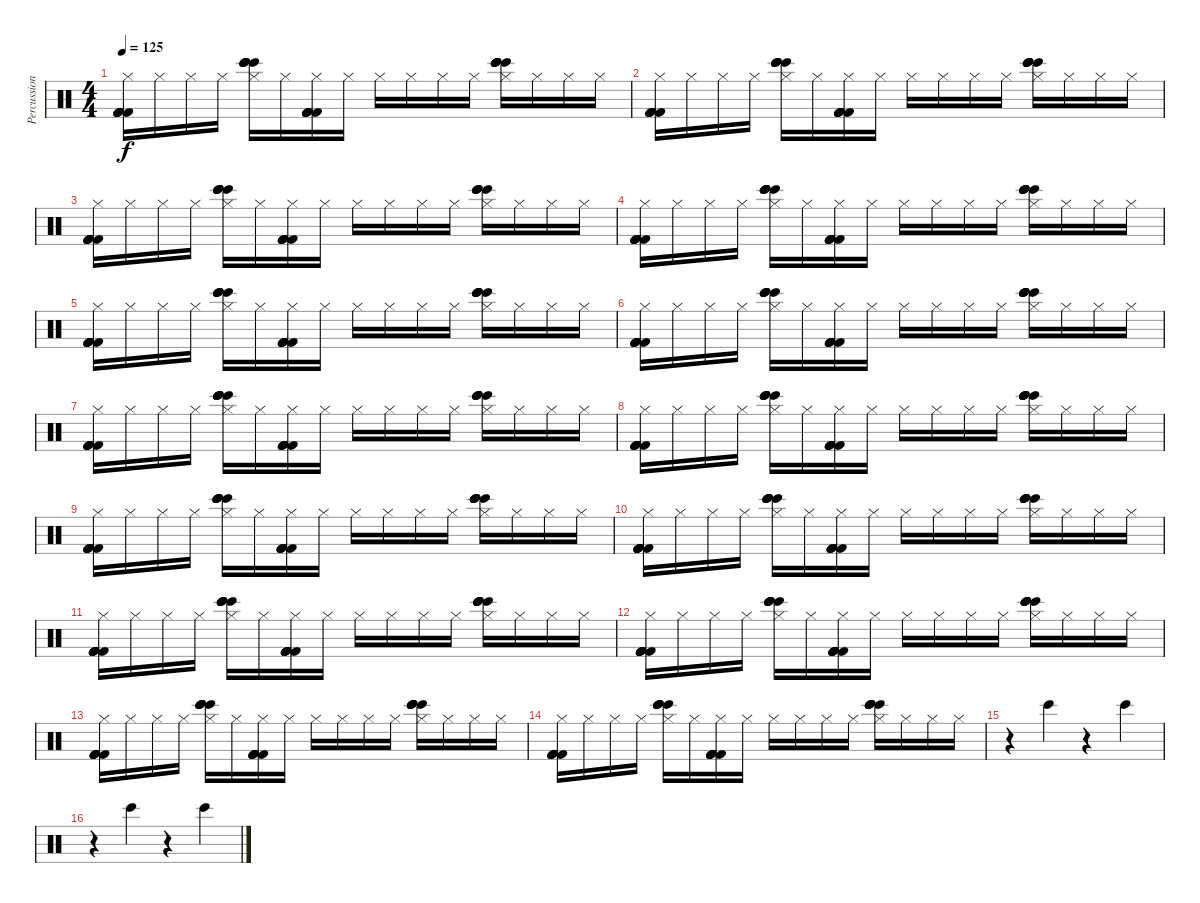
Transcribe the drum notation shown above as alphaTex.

\track ("Percussion" "Percussion") {instrument percussion}
\staff {score}
\articulation defaults
\ts (4 4)
\tempo 125
\clef neutral
\ks c
("Hi-Hat (closed)" "Kick (hit) 2" "Kick (hit) 2" "Kick (hit) 2" "Kick (hit) 2" "Kick (hit) 2").16{dy f} "Hi-Hat (closed)".16 "Hi-Hat (closed)".16 "Hi-Hat (closed)".16 ("Hi-Hat (closed)" "Bongo High (hit)" "Bongo High (hit)" "Bongo High (hit)" "Bongo High (hit)" "Bongo High (hit)").16 "Hi-Hat (closed)".16 ("Hi-Hat (closed)" "Kick (hit) 2" "Kick (hit) 2" "Kick (hit) 2" "Kick (hit) 2" "Kick (hit) 2").16 "Hi-Hat (closed)".16 "Hi-Hat (closed)".16 "Hi-Hat (closed)".16 "Hi-Hat (closed)".16 "Hi-Hat (closed)".16 ("Hi-Hat (closed)" "Bongo High (hit)" "Bongo High (hit)" "Bongo High (hit)" "Bongo High (hit)" "Bongo High (hit)").16 "Hi-Hat (closed)".16 "Hi-Hat (closed)".16 "Hi-Hat (closed)".16 |
("Hi-Hat (closed)" "Kick (hit) 2" "Kick (hit) 2" "Kick (hit) 2" "Kick (hit) 2" "Kick (hit) 2").16 "Hi-Hat (closed)".16 "Hi-Hat (closed)".16 "Hi-Hat (closed)".16 ("Hi-Hat (closed)" "Bongo High (hit)" "Bongo High (hit)" "Bongo High (hit)" "Bongo High (hit)" "Bongo High (hit)").16 "Hi-Hat (closed)".16 ("Hi-Hat (closed)" "Kick (hit) 2" "Kick (hit) 2" "Kick (hit) 2" "Kick (hit) 2" "Kick (hit) 2").16 "Hi-Hat (closed)".16 "Hi-Hat (closed)".16 "Hi-Hat (closed)".16 "Hi-Hat (closed)".16 "Hi-Hat (closed)".16 ("Hi-Hat (closed)" "Bongo High (hit)" "Bongo High (hit)" "Bongo High (hit)" "Bongo High (hit)" "Bongo High (hit)").16 "Hi-Hat (closed)".16 "Hi-Hat (closed)".16 "Hi-Hat (closed)".16 |
("Hi-Hat (closed)" "Kick (hit) 2" "Kick (hit) 2" "Kick (hit) 2" "Kick (hit) 2" "Kick (hit) 2").16 "Hi-Hat (closed)".16 "Hi-Hat (closed)".16 "Hi-Hat (closed)".16 ("Hi-Hat (closed)" "Bongo High (hit)" "Bongo High (hit)" "Bongo High (hit)" "Bongo High (hit)" "Bongo High (hit)").16 "Hi-Hat (closed)".16 ("Hi-Hat (closed)" "Kick (hit) 2" "Kick (hit) 2" "Kick (hit) 2" "Kick (hit) 2" "Kick (hit) 2").16 "Hi-Hat (closed)".16 "Hi-Hat (closed)".16 "Hi-Hat (closed)".16 "Hi-Hat (closed)".16 "Hi-Hat (closed)".16 ("Hi-Hat (closed)" "Bongo High (hit)" "Bongo High (hit)" "Bongo High (hit)" "Bongo High (hit)" "Bongo High (hit)").16 "Hi-Hat (closed)".16 "Hi-Hat (closed)".16 "Hi-Hat (closed)".16 |
("Hi-Hat (closed)" "Kick (hit) 2" "Kick (hit) 2" "Kick (hit) 2" "Kick (hit) 2" "Kick (hit) 2").16 "Hi-Hat (closed)".16 "Hi-Hat (closed)".16 "Hi-Hat (closed)".16 ("Hi-Hat (closed)" "Bongo High (hit)" "Bongo High (hit)" "Bongo High (hit)" "Bongo High (hit)" "Bongo High (hit)").16 "Hi-Hat (closed)".16 ("Hi-Hat (closed)" "Kick (hit) 2" "Kick (hit) 2" "Kick (hit) 2" "Kick (hit) 2" "Kick (hit) 2").16 "Hi-Hat (closed)".16 "Hi-Hat (closed)".16 "Hi-Hat (closed)".16 "Hi-Hat (closed)".16 "Hi-Hat (closed)".16 ("Hi-Hat (closed)" "Bongo High (hit)" "Bongo High (hit)" "Bongo High (hit)" "Bongo High (hit)" "Bongo High (hit)").16 "Hi-Hat (closed)".16 "Hi-Hat (closed)".16 "Hi-Hat (closed)".16 |
("Hi-Hat (closed)" "Kick (hit) 2" "Kick (hit) 2" "Kick (hit) 2" "Kick (hit) 2" "Kick (hit) 2").16 "Hi-Hat (closed)".16 "Hi-Hat (closed)".16 "Hi-Hat (closed)".16 ("Hi-Hat (closed)" "Bongo High (hit)" "Bongo High (hit)" "Bongo High (hit)" "Bongo High (hit)" "Bongo High (hit)").16 "Hi-Hat (closed)".16 ("Hi-Hat (closed)" "Kick (hit) 2" "Kick (hit) 2" "Kick (hit) 2" "Kick (hit) 2" "Kick (hit) 2").16 "Hi-Hat (closed)".16 "Hi-Hat (closed)".16 "Hi-Hat (closed)".16 "Hi-Hat (closed)".16 "Hi-Hat (closed)".16 ("Hi-Hat (closed)" "Bongo High (hit)" "Bongo High (hit)" "Bongo High (hit)" "Bongo High (hit)" "Bongo High (hit)").16 "Hi-Hat (closed)".16 "Hi-Hat (closed)".16 "Hi-Hat (closed)".16 |
("Hi-Hat (closed)" "Kick (hit) 2" "Kick (hit) 2" "Kick (hit) 2" "Kick (hit) 2" "Kick (hit) 2").16 "Hi-Hat (closed)".16 "Hi-Hat (closed)".16 "Hi-Hat (closed)".16 ("Hi-Hat (closed)" "Bongo High (hit)" "Bongo High (hit)" "Bongo High (hit)" "Bongo High (hit)" "Bongo High (hit)").16 "Hi-Hat (closed)".16 ("Hi-Hat (closed)" "Kick (hit) 2" "Kick (hit) 2" "Kick (hit) 2" "Kick (hit) 2" "Kick (hit) 2").16 "Hi-Hat (closed)".16 "Hi-Hat (closed)".16 "Hi-Hat (closed)".16 "Hi-Hat (closed)".16 "Hi-Hat (closed)".16 ("Hi-Hat (closed)" "Bongo High (hit)" "Bongo High (hit)" "Bongo High (hit)" "Bongo High (hit)" "Bongo High (hit)").16 "Hi-Hat (closed)".16 "Hi-Hat (closed)".16 "Hi-Hat (closed)".16 |
("Hi-Hat (closed)" "Kick (hit) 2" "Kick (hit) 2" "Kick (hit) 2" "Kick (hit) 2" "Kick (hit) 2").16 "Hi-Hat (closed)".16 "Hi-Hat (closed)".16 "Hi-Hat (closed)".16 ("Hi-Hat (closed)" "Bongo High (hit)" "Bongo High (hit)" "Bongo High (hit)" "Bongo High (hit)" "Bongo High (hit)").16 "Hi-Hat (closed)".16 ("Hi-Hat (closed)" "Kick (hit) 2" "Kick (hit) 2" "Kick (hit) 2" "Kick (hit) 2" "Kick (hit) 2").16 "Hi-Hat (closed)".16 "Hi-Hat (closed)".16 "Hi-Hat (closed)".16 "Hi-Hat (closed)".16 "Hi-Hat (closed)".16 ("Hi-Hat (closed)" "Bongo High (hit)" "Bongo High (hit)" "Bongo High (hit)" "Bongo High (hit)" "Bongo High (hit)").16 "Hi-Hat (closed)".16 "Hi-Hat (closed)".16 "Hi-Hat (closed)".16 |
("Hi-Hat (closed)" "Kick (hit) 2" "Kick (hit) 2" "Kick (hit) 2" "Kick (hit) 2" "Kick (hit) 2").16 "Hi-Hat (closed)".16 "Hi-Hat (closed)".16 "Hi-Hat (closed)".16 ("Hi-Hat (closed)" "Bongo High (hit)" "Bongo High (hit)" "Bongo High (hit)" "Bongo High (hit)" "Bongo High (hit)").16 "Hi-Hat (closed)".16 ("Hi-Hat (closed)" "Kick (hit) 2" "Kick (hit) 2" "Kick (hit) 2" "Kick (hit) 2" "Kick (hit) 2").16 "Hi-Hat (closed)".16 "Hi-Hat (closed)".16 "Hi-Hat (closed)".16 "Hi-Hat (closed)".16 "Hi-Hat (closed)".16 ("Hi-Hat (closed)" "Bongo High (hit)" "Bongo High (hit)" "Bongo High (hit)" "Bongo High (hit)" "Bongo High (hit)").16 "Hi-Hat (closed)".16 "Hi-Hat (closed)".16 "Hi-Hat (closed)".16 |
("Hi-Hat (closed)" "Kick (hit) 2" "Kick (hit) 2" "Kick (hit) 2" "Kick (hit) 2" "Kick (hit) 2").16 "Hi-Hat (closed)".16 "Hi-Hat (closed)".16 "Hi-Hat (closed)".16 ("Hi-Hat (closed)" "Bongo High (hit)" "Bongo High (hit)" "Bongo High (hit)" "Bongo High (hit)" "Bongo High (hit)").16 "Hi-Hat (closed)".16 ("Hi-Hat (closed)" "Kick (hit) 2" "Kick (hit) 2" "Kick (hit) 2" "Kick (hit) 2" "Kick (hit) 2").16 "Hi-Hat (closed)".16 "Hi-Hat (closed)".16 "Hi-Hat (closed)".16 "Hi-Hat (closed)".16 "Hi-Hat (closed)".16 ("Hi-Hat (closed)" "Bongo High (hit)" "Bongo High (hit)" "Bongo High (hit)" "Bongo High (hit)" "Bongo High (hit)").16 "Hi-Hat (closed)".16 "Hi-Hat (closed)".16 "Hi-Hat (closed)".16 |
("Hi-Hat (closed)" "Kick (hit) 2" "Kick (hit) 2" "Kick (hit) 2" "Kick (hit) 2" "Kick (hit) 2").16 "Hi-Hat (closed)".16 "Hi-Hat (closed)".16 "Hi-Hat (closed)".16 ("Hi-Hat (closed)" "Bongo High (hit)" "Bongo High (hit)" "Bongo High (hit)" "Bongo High (hit)" "Bongo High (hit)").16 "Hi-Hat (closed)".16 ("Hi-Hat (closed)" "Kick (hit) 2" "Kick (hit) 2" "Kick (hit) 2" "Kick (hit) 2" "Kick (hit) 2").16 "Hi-Hat (closed)".16 "Hi-Hat (closed)".16 "Hi-Hat (closed)".16 "Hi-Hat (closed)".16 "Hi-Hat (closed)".16 ("Hi-Hat (closed)" "Bongo High (hit)" "Bongo High (hit)" "Bongo High (hit)" "Bongo High (hit)" "Bongo High (hit)").16 "Hi-Hat (closed)".16 "Hi-Hat (closed)".16 "Hi-Hat (closed)".16 |
("Hi-Hat (closed)" "Kick (hit) 2" "Kick (hit) 2" "Kick (hit) 2" "Kick (hit) 2" "Kick (hit) 2").16 "Hi-Hat (closed)".16 "Hi-Hat (closed)".16 "Hi-Hat (closed)".16 ("Hi-Hat (closed)" "Bongo High (hit)" "Bongo High (hit)" "Bongo High (hit)" "Bongo High (hit)" "Bongo High (hit)").16 "Hi-Hat (closed)".16 ("Hi-Hat (closed)" "Kick (hit) 2" "Kick (hit) 2" "Kick (hit) 2" "Kick (hit) 2" "Kick (hit) 2").16 "Hi-Hat (closed)".16 "Hi-Hat (closed)".16 "Hi-Hat (closed)".16 "Hi-Hat (closed)".16 "Hi-Hat (closed)".16 ("Hi-Hat (closed)" "Bongo High (hit)" "Bongo High (hit)" "Bongo High (hit)" "Bongo High (hit)" "Bongo High (hit)").16 "Hi-Hat (closed)".16 "Hi-Hat (closed)".16 "Hi-Hat (closed)".16 |
("Hi-Hat (closed)" "Kick (hit) 2" "Kick (hit) 2" "Kick (hit) 2" "Kick (hit) 2" "Kick (hit) 2").16 "Hi-Hat (closed)".16 "Hi-Hat (closed)".16 "Hi-Hat (closed)".16 ("Hi-Hat (closed)" "Bongo High (hit)" "Bongo High (hit)" "Bongo High (hit)" "Bongo High (hit)" "Bongo High (hit)").16 "Hi-Hat (closed)".16 ("Hi-Hat (closed)" "Kick (hit) 2" "Kick (hit) 2" "Kick (hit) 2" "Kick (hit) 2" "Kick (hit) 2").16 "Hi-Hat (closed)".16 "Hi-Hat (closed)".16 "Hi-Hat (closed)".16 "Hi-Hat (closed)".16 "Hi-Hat (closed)".16 ("Hi-Hat (closed)" "Bongo High (hit)" "Bongo High (hit)" "Bongo High (hit)" "Bongo High (hit)" "Bongo High (hit)").16 "Hi-Hat (closed)".16 "Hi-Hat (closed)".16 "Hi-Hat (closed)".16 |
("Hi-Hat (closed)" "Kick (hit) 2" "Kick (hit) 2" "Kick (hit) 2" "Kick (hit) 2" "Kick (hit) 2").16 "Hi-Hat (closed)".16 "Hi-Hat (closed)".16 "Hi-Hat (closed)".16 ("Hi-Hat (closed)" "Bongo High (hit)" "Bongo High (hit)" "Bongo High (hit)" "Bongo High (hit)" "Bongo High (hit)").16 "Hi-Hat (closed)".16 ("Hi-Hat (closed)" "Kick (hit) 2" "Kick (hit) 2" "Kick (hit) 2" "Kick (hit) 2" "Kick (hit) 2").16 "Hi-Hat (closed)".16 "Hi-Hat (closed)".16 "Hi-Hat (closed)".16 "Hi-Hat (closed)".16 "Hi-Hat (closed)".16 ("Hi-Hat (closed)" "Bongo High (hit)" "Bongo High (hit)" "Bongo High (hit)" "Bongo High (hit)" "Bongo High (hit)").16 "Hi-Hat (closed)".16 "Hi-Hat (closed)".16 "Hi-Hat (closed)".16 |
("Hi-Hat (closed)" "Kick (hit) 2" "Kick (hit) 2" "Kick (hit) 2" "Kick (hit) 2" "Kick (hit) 2").16 "Hi-Hat (closed)".16 "Hi-Hat (closed)".16 "Hi-Hat (closed)".16 ("Hi-Hat (closed)" "Bongo High (hit)" "Bongo High (hit)" "Bongo High (hit)" "Bongo High (hit)" "Bongo High (hit)").16 "Hi-Hat (closed)".16 ("Hi-Hat (closed)" "Kick (hit) 2" "Kick (hit) 2" "Kick (hit) 2" "Kick (hit) 2" "Kick (hit) 2").16 "Hi-Hat (closed)".16 "Hi-Hat (closed)".16 "Hi-Hat (closed)".16 "Hi-Hat (closed)".16 "Hi-Hat (closed)".16 ("Hi-Hat (closed)" "Bongo High (hit)" "Bongo High (hit)" "Bongo High (hit)" "Bongo High (hit)" "Bongo High (hit)").16 "Hi-Hat (closed)".16 "Hi-Hat (closed)".16 "Hi-Hat (closed)".16 |
r.4 "Bongo High (hit)".4 r.4 "Bongo High (hit)".4 |
r.4 "Bongo High (hit)".4 r.4 "Bongo High (hit)".4
